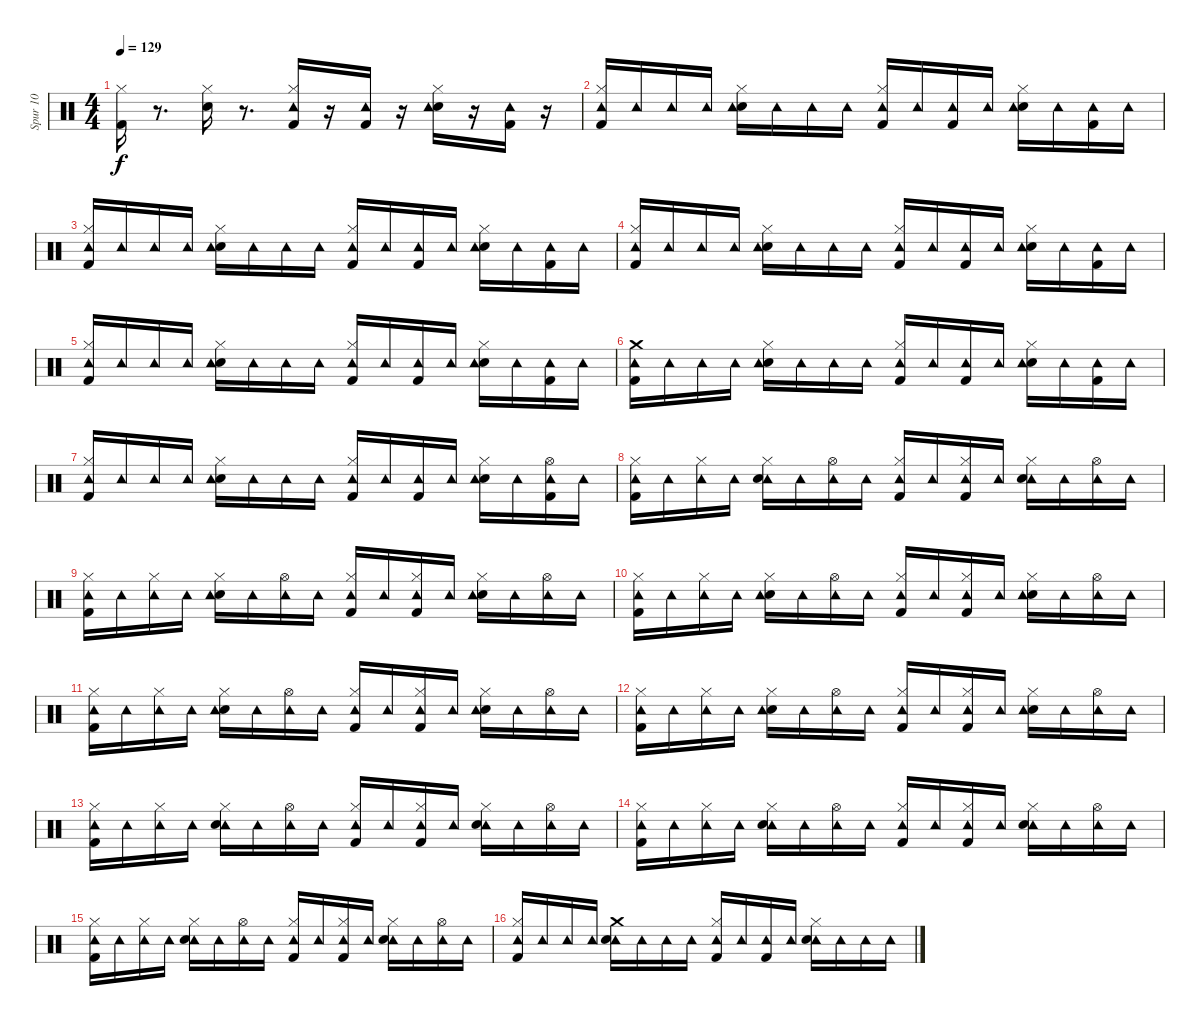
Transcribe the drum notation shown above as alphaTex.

\track ("Spur 10" "Spur 10") {instrument percussion}
\staff {score}
\articulation defaults
\ts (4 4)
\tempo 129
\clef neutral
\ks c
("Kick (hit) 2" "Hi-Hat (closed)").16{dy f} r.8{d} ("Snare (hit) 2" "Hi-Hat (closed)").16 r.8{d} ("Kick (hit) 2" "Hi-Hat (closed)" "Tambourine (hit)").16 r.16 ("Kick (hit) 2" "Tambourine (hit)").16 r.16 ("Snare (hit) 2" "Hi-Hat (closed)" "Tambourine (hit)").16 r.16 ("Kick (hit) 2" "Tambourine (hit)").16 r.16 |
("Kick (hit) 2" "Hi-Hat (closed)" "Tambourine (hit)").16 "Tambourine (hit)".16 "Tambourine (hit)".16 "Tambourine (hit)".16 ("Snare (hit) 2" "Hi-Hat (closed)" "Tambourine (hit)").16 "Tambourine (hit)".16 "Tambourine (hit)".16 "Tambourine (hit)".16 ("Kick (hit) 2" "Hi-Hat (closed)" "Tambourine (hit)").16 "Tambourine (hit)".16 ("Kick (hit) 2" "Tambourine (hit)").16 "Tambourine (hit)".16 ("Snare (hit) 2" "Hi-Hat (closed)" "Tambourine (hit)").16 "Tambourine (hit)".16 ("Kick (hit) 2" "Tambourine (hit)").16 "Tambourine (hit)".16 |
("Kick (hit) 2" "Hi-Hat (closed)" "Tambourine (hit)").16 "Tambourine (hit)".16 "Tambourine (hit)".16 "Tambourine (hit)".16 ("Snare (hit) 2" "Hi-Hat (closed)" "Tambourine (hit)").16 "Tambourine (hit)".16 "Tambourine (hit)".16 "Tambourine (hit)".16 ("Kick (hit) 2" "Hi-Hat (closed)" "Tambourine (hit)").16 "Tambourine (hit)".16 ("Kick (hit) 2" "Tambourine (hit)").16 "Tambourine (hit)".16 ("Snare (hit) 2" "Hi-Hat (closed)" "Tambourine (hit)").16 "Tambourine (hit)".16 ("Kick (hit) 2" "Tambourine (hit)").16 "Tambourine (hit)".16 |
("Kick (hit) 2" "Hi-Hat (closed)" "Tambourine (hit)").16 "Tambourine (hit)".16 "Tambourine (hit)".16 "Tambourine (hit)".16 ("Snare (hit) 2" "Hi-Hat (closed)" "Tambourine (hit)").16 "Tambourine (hit)".16 "Tambourine (hit)".16 "Tambourine (hit)".16 ("Kick (hit) 2" "Hi-Hat (closed)" "Tambourine (hit)").16 "Tambourine (hit)".16 ("Kick (hit) 2" "Tambourine (hit)").16 "Tambourine (hit)".16 ("Snare (hit) 2" "Hi-Hat (closed)" "Tambourine (hit)").16 "Tambourine (hit)".16 ("Kick (hit) 2" "Tambourine (hit)").16 "Tambourine (hit)".16 |
("Kick (hit) 2" "Hi-Hat (closed)" "Tambourine (hit)").16 "Tambourine (hit)".16 "Tambourine (hit)".16 "Tambourine (hit)".16 ("Snare (hit) 2" "Hi-Hat (closed)" "Tambourine (hit)").16 "Tambourine (hit)".16 "Tambourine (hit)".16 "Tambourine (hit)".16 ("Kick (hit) 2" "Hi-Hat (closed)" "Tambourine (hit)").16 "Tambourine (hit)".16 ("Kick (hit) 2" "Tambourine (hit)").16 "Tambourine (hit)".16 ("Snare (hit) 2" "Hi-Hat (closed)" "Tambourine (hit)").16 "Tambourine (hit)".16 ("Kick (hit) 2" "Tambourine (hit)").16 "Tambourine (hit)".16 |
("Crash medium (hit)" "Kick (hit) 2" "Tambourine (hit)").16 "Tambourine (hit)".16 "Tambourine (hit)".16 "Tambourine (hit)".16 ("Snare (hit) 2" "Hi-Hat (closed)" "Tambourine (hit)").16 "Tambourine (hit)".16 "Tambourine (hit)".16 "Tambourine (hit)".16 ("Kick (hit) 2" "Hi-Hat (closed)" "Tambourine (hit)").16 "Tambourine (hit)".16 ("Kick (hit) 2" "Tambourine (hit)").16 "Tambourine (hit)".16 ("Snare (hit) 2" "Hi-Hat (closed)" "Tambourine (hit)").16 "Tambourine (hit)".16 ("Kick (hit) 2" "Tambourine (hit)").16 "Tambourine (hit)".16 |
("Kick (hit) 2" "Hi-Hat (closed)" "Tambourine (hit)").16 "Tambourine (hit)".16 "Tambourine (hit)".16 "Tambourine (hit)".16 ("Snare (hit) 2" "Hi-Hat (closed)" "Tambourine (hit)").16 "Tambourine (hit)".16 "Tambourine (hit)".16 "Tambourine (hit)".16 ("Kick (hit) 2" "Hi-Hat (closed)" "Tambourine (hit)").16 "Tambourine (hit)".16 ("Kick (hit) 2" "Tambourine (hit)").16 "Tambourine (hit)".16 ("Snare (hit) 2" "Hi-Hat (closed)" "Tambourine (hit)").16 "Tambourine (hit)".16 ("Kick (hit) 2" "Hi-Hat (open)" "Tambourine (hit)").16 "Tambourine (hit)".16 |
("Tambourine (hit)" "Kick (hit) 2" "Hi-Hat (closed)").16 "Tambourine (hit)".16 ("Tambourine (hit)" "Hi-Hat (closed)").16 "Tambourine (hit)".16 ("Tambourine (hit)" "Snare (hit) 2" "Hi-Hat (closed)").16 "Tambourine (hit)".16 ("Tambourine (hit)" "Hi-Hat (open)").16 "Tambourine (hit)".16 ("Tambourine (hit)" "Kick (hit) 2" "Hi-Hat (closed)").16 "Tambourine (hit)".16 ("Tambourine (hit)" "Kick (hit) 2" "Hi-Hat (closed)").16 "Tambourine (hit)".16 ("Tambourine (hit)" "Snare (hit) 2" "Hi-Hat (closed)").16 "Tambourine (hit)".16 ("Tambourine (hit)" "Hi-Hat (open)").16 "Tambourine (hit)".16 |
("Hi-Hat (closed)" "Kick (hit) 2" "Tambourine (hit)").16 "Tambourine (hit)".16 ("Hi-Hat (closed)" "Tambourine (hit)").16 "Tambourine (hit)".16 ("Hi-Hat (closed)" "Snare (hit) 2" "Tambourine (hit)").16 "Tambourine (hit)".16 ("Hi-Hat (open)" "Tambourine (hit)").16 "Tambourine (hit)".16 ("Hi-Hat (closed)" "Kick (hit) 2" "Tambourine (hit)").16 "Tambourine (hit)".16 ("Hi-Hat (closed)" "Kick (hit) 2" "Tambourine (hit)").16 "Tambourine (hit)".16 ("Hi-Hat (closed)" "Snare (hit) 2" "Tambourine (hit)").16 "Tambourine (hit)".16 ("Hi-Hat (open)" "Tambourine (hit)").16 "Tambourine (hit)".16 |
("Hi-Hat (closed)" "Kick (hit) 2" "Tambourine (hit)").16 "Tambourine (hit)".16 ("Hi-Hat (closed)" "Tambourine (hit)").16 "Tambourine (hit)".16 ("Hi-Hat (closed)" "Snare (hit) 2" "Tambourine (hit)").16 "Tambourine (hit)".16 ("Hi-Hat (open)" "Tambourine (hit)").16 "Tambourine (hit)".16 ("Hi-Hat (closed)" "Kick (hit) 2" "Tambourine (hit)").16 "Tambourine (hit)".16 ("Hi-Hat (closed)" "Kick (hit) 2" "Tambourine (hit)").16 "Tambourine (hit)".16 ("Hi-Hat (closed)" "Snare (hit) 2" "Tambourine (hit)").16 "Tambourine (hit)".16 ("Hi-Hat (open)" "Tambourine (hit)").16 "Tambourine (hit)".16 |
("Hi-Hat (closed)" "Kick (hit) 2" "Tambourine (hit)").16 "Tambourine (hit)".16 ("Hi-Hat (closed)" "Tambourine (hit)").16 "Tambourine (hit)".16 ("Hi-Hat (closed)" "Snare (hit) 2" "Tambourine (hit)").16 "Tambourine (hit)".16 ("Hi-Hat (open)" "Tambourine (hit)").16 "Tambourine (hit)".16 ("Hi-Hat (closed)" "Kick (hit) 2" "Tambourine (hit)").16 "Tambourine (hit)".16 ("Hi-Hat (closed)" "Kick (hit) 2" "Tambourine (hit)").16 "Tambourine (hit)".16 ("Hi-Hat (closed)" "Snare (hit) 2" "Tambourine (hit)").16 "Tambourine (hit)".16 ("Hi-Hat (open)" "Tambourine (hit)").16 "Tambourine (hit)".16 |
("Hi-Hat (closed)" "Kick (hit) 2" "Tambourine (hit)").16 "Tambourine (hit)".16 ("Hi-Hat (closed)" "Tambourine (hit)").16 "Tambourine (hit)".16 ("Hi-Hat (closed)" "Snare (hit) 2" "Tambourine (hit)").16 "Tambourine (hit)".16 ("Hi-Hat (open)" "Tambourine (hit)").16 "Tambourine (hit)".16 ("Hi-Hat (closed)" "Kick (hit) 2" "Tambourine (hit)").16 "Tambourine (hit)".16 ("Hi-Hat (closed)" "Kick (hit) 2" "Tambourine (hit)").16 "Tambourine (hit)".16 ("Hi-Hat (closed)" "Snare (hit) 2" "Tambourine (hit)").16 "Tambourine (hit)".16 ("Hi-Hat (open)" "Tambourine (hit)").16 "Tambourine (hit)".16 |
("Tambourine (hit)" "Kick (hit) 2" "Hi-Hat (closed)").16 "Tambourine (hit)".16 ("Tambourine (hit)" "Hi-Hat (closed)").16 "Tambourine (hit)".16 ("Tambourine (hit)" "Snare (hit) 2" "Hi-Hat (closed)").16 "Tambourine (hit)".16 ("Tambourine (hit)" "Hi-Hat (open)").16 "Tambourine (hit)".16 ("Tambourine (hit)" "Kick (hit) 2" "Hi-Hat (closed)").16 "Tambourine (hit)".16 ("Tambourine (hit)" "Kick (hit) 2" "Hi-Hat (closed)").16 "Tambourine (hit)".16 ("Tambourine (hit)" "Snare (hit) 2" "Hi-Hat (closed)").16 "Tambourine (hit)".16 ("Tambourine (hit)" "Hi-Hat (open)").16 "Tambourine (hit)".16 |
("Tambourine (hit)" "Kick (hit) 2" "Hi-Hat (closed)").16 "Tambourine (hit)".16 ("Tambourine (hit)" "Hi-Hat (closed)").16 "Tambourine (hit)".16 ("Tambourine (hit)" "Snare (hit) 2" "Hi-Hat (closed)").16 "Tambourine (hit)".16 ("Tambourine (hit)" "Hi-Hat (open)").16 "Tambourine (hit)".16 ("Tambourine (hit)" "Kick (hit) 2" "Hi-Hat (closed)").16 "Tambourine (hit)".16 ("Tambourine (hit)" "Kick (hit) 2" "Hi-Hat (closed)").16 "Tambourine (hit)".16 ("Tambourine (hit)" "Snare (hit) 2" "Hi-Hat (closed)").16 "Tambourine (hit)".16 ("Tambourine (hit)" "Hi-Hat (open)").16 "Tambourine (hit)".16 |
("Tambourine (hit)" "Kick (hit) 2" "Hi-Hat (closed)").16 "Tambourine (hit)".16 ("Tambourine (hit)" "Hi-Hat (closed)").16 "Tambourine (hit)".16 ("Tambourine (hit)" "Snare (hit) 2" "Hi-Hat (closed)").16 "Tambourine (hit)".16 ("Tambourine (hit)" "Hi-Hat (open)").16 "Tambourine (hit)".16 ("Tambourine (hit)" "Kick (hit) 2" "Hi-Hat (closed)").16 "Tambourine (hit)".16 ("Tambourine (hit)" "Kick (hit) 2" "Hi-Hat (closed)").16 "Tambourine (hit)".16 ("Tambourine (hit)" "Snare (hit) 2" "Hi-Hat (closed)").16 "Tambourine (hit)".16 ("Tambourine (hit)" "Hi-Hat (open)").16 "Tambourine (hit)".16 |
("Tambourine (hit)" "Kick (hit) 2" "Hi-Hat (closed)").16 "Tambourine (hit)".16 "Tambourine (hit)".16 "Tambourine (hit)".16 ("Crash medium (hit)" "Tambourine (hit)" "Snare (hit) 2").16 "Tambourine (hit)".16 "Tambourine (hit)".16 "Tambourine (hit)".16 ("Tambourine (hit)" "Kick (hit) 2" "Hi-Hat (closed)").16 "Tambourine (hit)".16 ("Tambourine (hit)" "Kick (hit) 2").16 "Tambourine (hit)".16 ("Tambourine (hit)" "Snare (hit) 2" "Hi-Hat (closed)").16 "Tambourine (hit)".16 "Tambourine (hit)".16 "Tambourine (hit)".16
